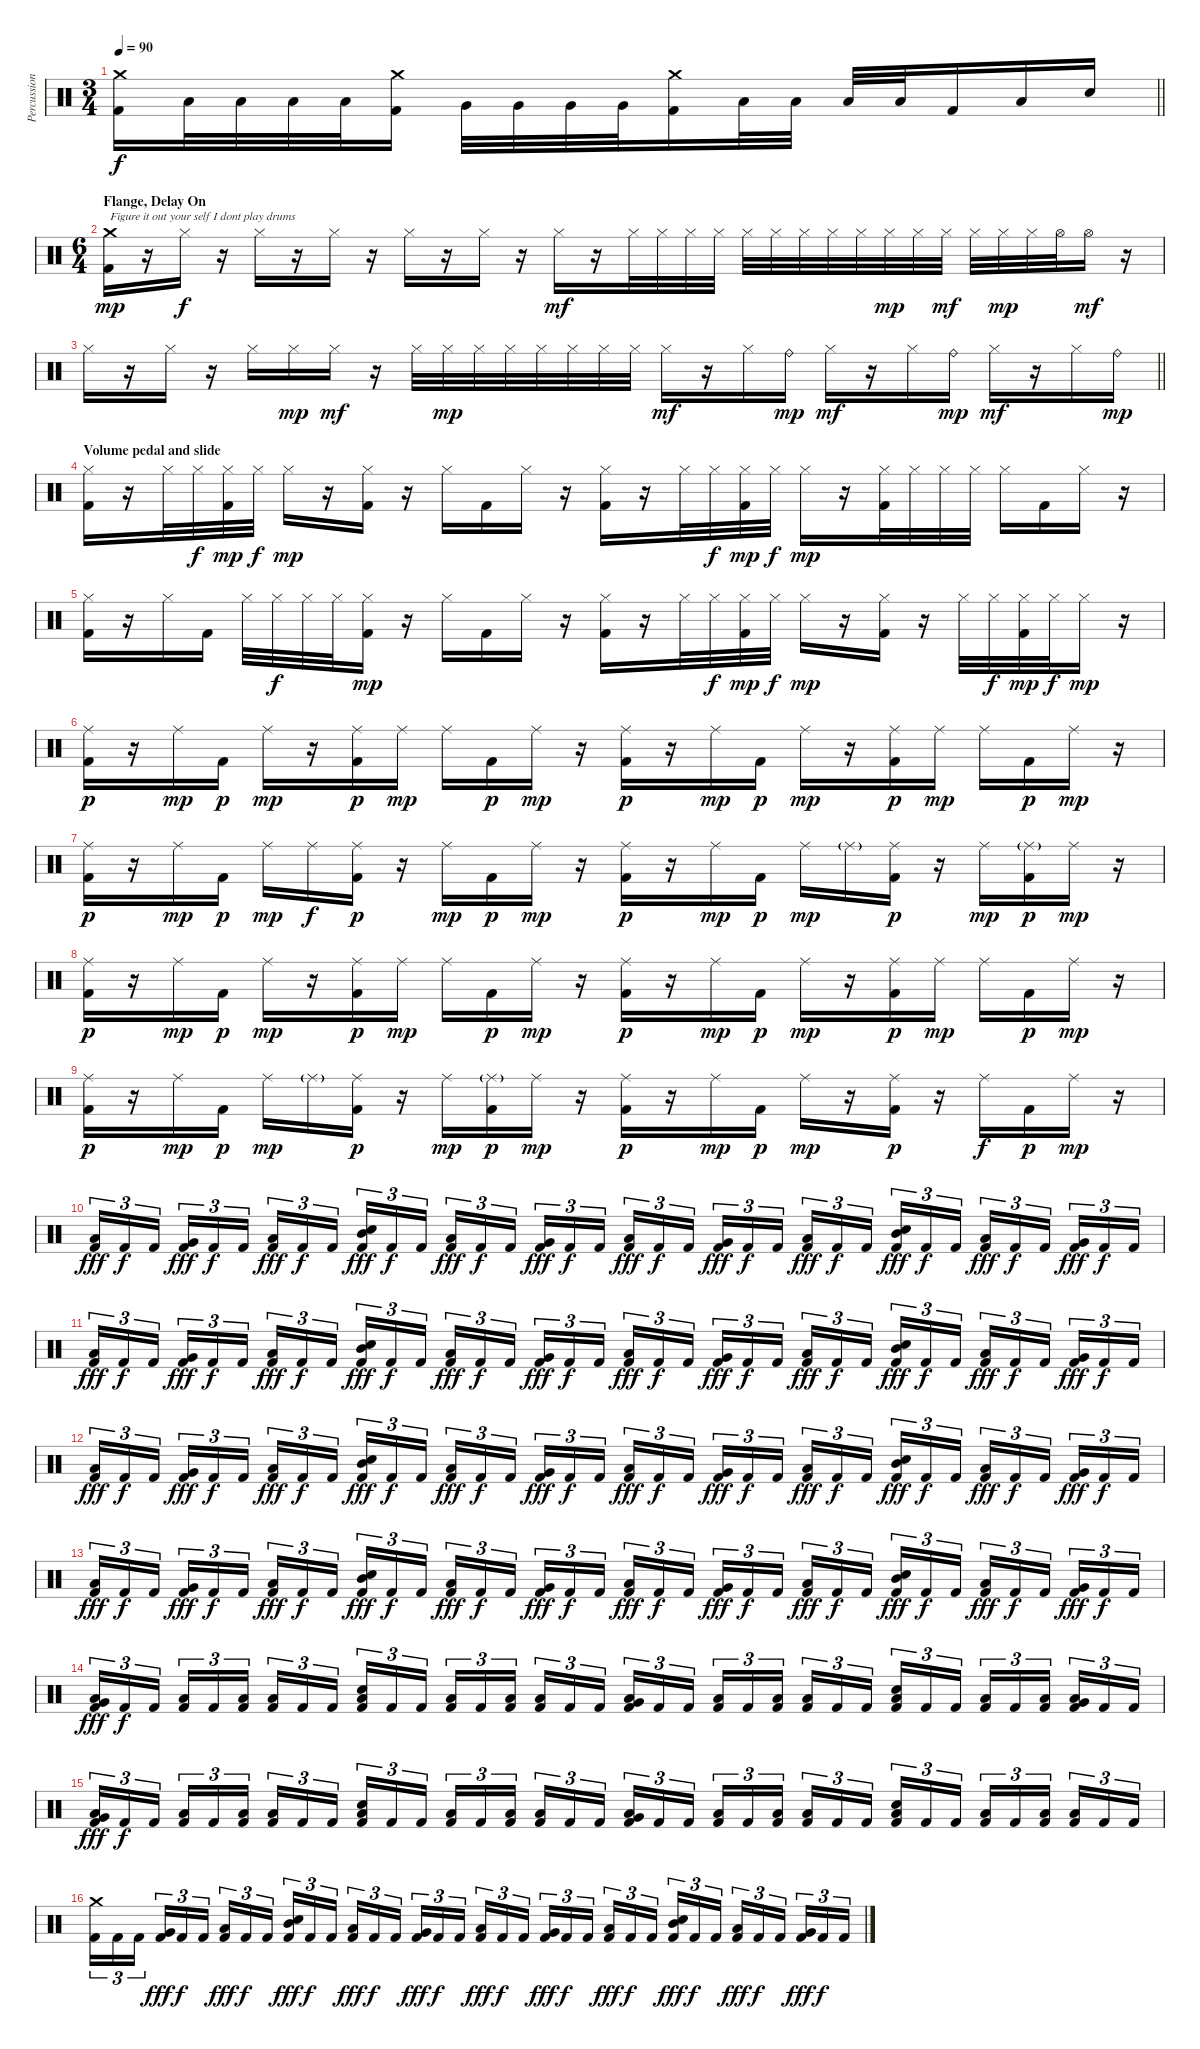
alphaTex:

\track ("Percussion" "Percussion") {instrument percussion}
\staff {score}
\articulation defaults
\ts (3 4)
\tempo 90
\clef neutral
\barLineRight lightlight
\ks c
("Crash medium (hit)" "Kick (hit) 2").16{dy f} "Low Tom (hit)".32 "Low Tom (hit)".32 "Low Tom (hit)".32 "Low Tom (hit)".32 ("Crash medium (hit)" "Kick (hit) 2").16 "Very Low Tom (hit)".32 "Very Low Tom (hit)".32 "Very Low Tom (hit)".32 "Very Low Tom (hit)".32 ("Crash medium (hit)" "Kick (hit) 2").16 "Low Floor Tom (hit)".32 "Low Floor Tom (hit)".32 "Low Floor Tom (hit)".32 "Low Floor Tom (hit)".32 "Kick (hit) 2".16 "Low Floor Tom (hit)".16 "Electric Snare (hit)".16 |
\ts (6 4)
\section ("" "Flange, Delay On")
("Crash medium (hit)" "Kick (hit) 2").16{txt "Figure it out your self I dont play drums" dy mp} r.16 "Hi-Hat (closed)".16{dy f} r.16 "Hi-Hat (closed)".16 r.16 "Hi-Hat (closed)".16 r.16 "Hi-Hat (closed)".16 r.16 "Hi-Hat (closed)".16 r.16 "Hi-Hat (closed)".16{dy mf} r.16 "Hi-Hat (closed)".32 "Hi-Hat (closed)".32 "Hi-Hat (closed)".32 "Hi-Hat (closed)".32 "Hi-Hat (closed)".32 "Hi-Hat (closed)".32 "Hi-Hat (closed)".32 "Hi-Hat (closed)".32 "Hi-Hat (closed)".32 "Hi-Hat (closed)".32{dy mp} "Hi-Hat (closed)".32 "Hi-Hat (closed)".32{dy mf} "Hi-Hat (closed)".32 "Hi-Hat (closed)".32{dy mp} "Hi-Hat (closed)".32 "Hi-Hat (open)".32 "Hi-Hat (open)".16{dy mf} r.16 |
\barLineRight lightlight "Hi-Hat (closed)".16
r.16 "Hi-Hat (closed)".16 r.16 "Hi-Hat (closed)".16 "Hi-Hat (closed)".16{dy mp} "Hi-Hat (closed)".16{dy mf} r.16 "Hi-Hat (closed)".32 "Hi-Hat (closed)".32{dy mp} "Hi-Hat (closed)".32 "Hi-Hat (closed)".32 "Hi-Hat (closed)".32 "Hi-Hat (closed)".32 "Hi-Hat (closed)".32 "Hi-Hat (closed)".32 "Hi-Hat (closed)".16{dy mf} r.16 "Hi-Hat (closed)".16 "Ride (bell)".16{dy mp} "Hi-Hat (closed)".16{dy mf} r.16 "Hi-Hat (closed)".16 "Ride (bell)".16{dy mp} "Hi-Hat (closed)".16{dy mf} r.16 "Hi-Hat (closed)".16 "Ride (bell)".16{dy mp} |
\section ("" "Volume pedal and slide")
("Hi-Hat (closed)" "Kick (hit) 2").16 r.16 "Hi-Hat (closed)".32 "Hi-Hat (closed)".32{dy f} ("Hi-Hat (closed)" "Kick (hit) 2").32{dy mp} "Hi-Hat (closed)".32{dy f} "Hi-Hat (closed)".16{dy mp} r.16 ("Hi-Hat (closed)" "Kick (hit) 2").16 r.16 "Hi-Hat (closed)".16 "Kick (hit) 2".16 "Hi-Hat (closed)".16 r.16 ("Hi-Hat (closed)" "Kick (hit) 2").16 r.16 "Hi-Hat (closed)".32 "Hi-Hat (closed)".32{dy f} ("Hi-Hat (closed)" "Kick (hit) 2").32{dy mp} "Hi-Hat (closed)".32{dy f} "Hi-Hat (closed)".16{dy mp} r.16 ("Hi-Hat (closed)" "Kick (hit) 2").32 "Hi-Hat (closed)".32 "Hi-Hat (closed)".32 "Hi-Hat (closed)".32 "Hi-Hat (closed)".16 "Kick (hit) 2".16 "Hi-Hat (closed)".16 r.16 |
("Hi-Hat (closed)" "Kick (hit) 2").16 r.16 "Hi-Hat (closed)".16 "Kick (hit) 2".16 "Hi-Hat (closed)".32 "Hi-Hat (closed)".32{dy f} "Hi-Hat (closed)".32 "Hi-Hat (closed)".32 ("Hi-Hat (closed)" "Kick (hit) 2").16{dy mp} r.16 "Hi-Hat (closed)".16 "Kick (hit) 2".16 "Hi-Hat (closed)".16 r.16 ("Hi-Hat (closed)" "Kick (hit) 2").16 r.16 "Hi-Hat (closed)".32 "Hi-Hat (closed)".32{dy f} ("Hi-Hat (closed)" "Kick (hit) 2").32{dy mp} "Hi-Hat (closed)".32{dy f} "Hi-Hat (closed)".16{dy mp} r.16 ("Hi-Hat (closed)" "Kick (hit) 2").16 r.16 "Hi-Hat (closed)".32 "Hi-Hat (closed)".32{dy f} ("Hi-Hat (closed)" "Kick (hit) 2").32{dy mp} "Hi-Hat (closed)".32{dy f} "Hi-Hat (closed)".16{dy mp} r.16 |
("Ride (middle)" "Kick (hit) 2").16{dy p} r.16 "Ride (middle)".16{dy mp} "Kick (hit) 2".16{dy p} "Ride (middle)".16{dy mp} r.16 ("Ride (middle)" "Kick (hit) 2").16{dy p} "Ride (middle)".16{dy mp} "Ride (middle)".16 "Kick (hit) 2".16{dy p} "Ride (middle)".16{dy mp} r.16 ("Ride (middle)" "Kick (hit) 2").16{dy p} r.16 "Ride (middle)".16{dy mp} "Kick (hit) 2".16{dy p} "Ride (middle)".16{dy mp} r.16 ("Ride (middle)" "Kick (hit) 2").16{dy p} "Ride (middle)".16{dy mp} "Ride (middle)".16 "Kick (hit) 2".16{dy p} "Ride (middle)".16{dy mp} r.16 |
("Ride (middle)" "Kick (hit) 2").16{dy p} r.16 "Ride (middle)".16{dy mp} "Kick (hit) 2".16{dy p} "Ride (middle)".16{dy mp} "Ride (middle)".16{dy f} ("Ride (middle)" "Kick (hit) 2").16{dy p} r.16 "Ride (middle)".16{dy mp} "Kick (hit) 2".16{dy p} "Ride (middle)".16{dy mp} r.16 ("Ride (middle)" "Kick (hit) 2").16{dy p} r.16 "Ride (middle)".16{dy mp} "Kick (hit) 2".16{dy p} "Ride (middle)".16{dy mp} "Ride (middle)"{g}.16 ("Ride (middle)" "Kick (hit) 2").16{dy p} r.16 "Ride (middle)".16{dy mp} ("Ride (middle)"{g} "Kick (hit) 2").16{dy p} "Ride (middle)".16{dy mp} r.16 |
("Ride (middle)" "Kick (hit) 2").16{dy p} r.16 "Ride (middle)".16{dy mp} "Kick (hit) 2".16{dy p} "Ride (middle)".16{dy mp} r.16 ("Ride (middle)" "Kick (hit) 2").16{dy p} "Ride (middle)".16{dy mp} "Ride (middle)".16 "Kick (hit) 2".16{dy p} "Ride (middle)".16{dy mp} r.16 ("Ride (middle)" "Kick (hit) 2").16{dy p} r.16 "Ride (middle)".16{dy mp} "Kick (hit) 2".16{dy p} "Ride (middle)".16{dy mp} r.16 ("Ride (middle)" "Kick (hit) 2").16{dy p} "Ride (middle)".16{dy mp} "Ride (middle)".16 "Kick (hit) 2".16{dy p} "Ride (middle)".16{dy mp} r.16 |
("Ride (middle)" "Kick (hit) 2").16{dy p} r.16 "Ride (middle)".16{dy mp} "Kick (hit) 2".16{dy p} "Ride (middle)".16{dy mp} "Ride (middle)"{g}.16 ("Ride (middle)" "Kick (hit) 2").16{dy p} r.16 "Ride (middle)".16{dy mp} ("Ride (middle)"{g} "Kick (hit) 2").16{dy p} "Ride (middle)".16{dy mp} r.16 ("Ride (middle)" "Kick (hit) 2").16{dy p} r.16 "Ride (middle)".16{dy mp} "Kick (hit) 2".16{dy p} "Ride (middle)".16{dy mp} r.16 ("Ride (middle)" "Kick (hit) 2").16{dy p} r.16 "Ride (middle)".16{dy f} "Kick (hit) 2".16{dy p} "Ride (middle)".16{dy mp} r.16 |
("Low Floor Tom (hit)" "Kick (hit) 2").16{tu (3 2) dy fff} "Kick (hit) 2".16{tu (3 2) dy f} "Kick (hit) 2".16{tu (3 2) beam splitsecondary} ("Very Low Tom (hit)" "Kick (hit) 2").16{tu (3 2) dy fff} "Kick (hit) 2".16{tu (3 2) dy f} "Kick (hit) 2".16{tu (3 2) beam splitsecondary} ("Low Tom (hit)" "Kick (hit) 2").16{tu (3 2) dy fff} "Kick (hit) 2".16{tu (3 2) dy f} "Kick (hit) 2".16{tu (3 2) beam splitsecondary} ("Mid Tom (hit)" "Electric Snare (hit)" "Kick (hit) 2").16{tu (3 2) dy fff} "Kick (hit) 2".16{tu (3 2) dy f} "Kick (hit) 2".16{tu (3 2) beam splitsecondary} ("Low Tom (hit)" "Kick (hit) 2").16{tu (3 2) dy fff} "Kick (hit) 2".16{tu (3 2) dy f} "Kick (hit) 2".16{tu (3 2) beam splitsecondary} ("Very Low Tom (hit)" "Kick (hit) 2").16{tu (3 2) dy fff} "Kick (hit) 2".16{tu (3 2) dy f} "Kick (hit) 2".16{tu (3 2)} ("Low Floor Tom (hit)" "Kick (hit) 2").16{tu (3 2) dy fff} "Kick (hit) 2".16{tu (3 2) dy f} "Kick (hit) 2".16{tu (3 2) beam splitsecondary} ("Very Low Tom (hit)" "Kick (hit) 2").16{tu (3 2) dy fff} "Kick (hit) 2".16{tu (3 2) dy f} "Kick (hit) 2".16{tu (3 2) beam splitsecondary} ("Low Tom (hit)" "Kick (hit) 2").16{tu (3 2) dy fff} "Kick (hit) 2".16{tu (3 2) dy f} "Kick (hit) 2".16{tu (3 2) beam splitsecondary} ("Mid Tom (hit)" "Electric Snare (hit)" "Kick (hit) 2").16{tu (3 2) dy fff} "Kick (hit) 2".16{tu (3 2) dy f} "Kick (hit) 2".16{tu (3 2) beam splitsecondary} ("Low Tom (hit)" "Kick (hit) 2").16{tu (3 2) dy fff} "Kick (hit) 2".16{tu (3 2) dy f} "Kick (hit) 2".16{tu (3 2) beam splitsecondary} ("Very Low Tom (hit)" "Kick (hit) 2").16{tu (3 2) dy fff} "Kick (hit) 2".16{tu (3 2) dy f} "Kick (hit) 2".16{tu (3 2)} |
("Low Floor Tom (hit)" "Kick (hit) 2").16{tu (3 2) dy fff} "Kick (hit) 2".16{tu (3 2) dy f} "Kick (hit) 2".16{tu (3 2) beam splitsecondary} ("Very Low Tom (hit)" "Kick (hit) 2").16{tu (3 2) dy fff} "Kick (hit) 2".16{tu (3 2) dy f} "Kick (hit) 2".16{tu (3 2) beam splitsecondary} ("Low Tom (hit)" "Kick (hit) 2").16{tu (3 2) dy fff} "Kick (hit) 2".16{tu (3 2) dy f} "Kick (hit) 2".16{tu (3 2) beam splitsecondary} ("Mid Tom (hit)" "Electric Snare (hit)" "Kick (hit) 2").16{tu (3 2) dy fff} "Kick (hit) 2".16{tu (3 2) dy f} "Kick (hit) 2".16{tu (3 2) beam splitsecondary} ("Low Tom (hit)" "Kick (hit) 2").16{tu (3 2) dy fff} "Kick (hit) 2".16{tu (3 2) dy f} "Kick (hit) 2".16{tu (3 2) beam splitsecondary} ("Very Low Tom (hit)" "Kick (hit) 2").16{tu (3 2) dy fff} "Kick (hit) 2".16{tu (3 2) dy f} "Kick (hit) 2".16{tu (3 2)} ("Low Floor Tom (hit)" "Kick (hit) 2").16{tu (3 2) dy fff} "Kick (hit) 2".16{tu (3 2) dy f} "Kick (hit) 2".16{tu (3 2) beam splitsecondary} ("Very Low Tom (hit)" "Kick (hit) 2").16{tu (3 2) dy fff} "Kick (hit) 2".16{tu (3 2) dy f} "Kick (hit) 2".16{tu (3 2) beam splitsecondary} ("Low Tom (hit)" "Kick (hit) 2").16{tu (3 2) dy fff} "Kick (hit) 2".16{tu (3 2) dy f} "Kick (hit) 2".16{tu (3 2) beam splitsecondary} ("Mid Tom (hit)" "Electric Snare (hit)" "Kick (hit) 2").16{tu (3 2) dy fff} "Kick (hit) 2".16{tu (3 2) dy f} "Kick (hit) 2".16{tu (3 2) beam splitsecondary} ("Low Tom (hit)" "Kick (hit) 2").16{tu (3 2) dy fff} "Kick (hit) 2".16{tu (3 2) dy f} "Kick (hit) 2".16{tu (3 2) beam splitsecondary} ("Very Low Tom (hit)" "Kick (hit) 2").16{tu (3 2) dy fff} "Kick (hit) 2".16{tu (3 2) dy f} "Kick (hit) 2".16{tu (3 2)} |
("Low Floor Tom (hit)" "Kick (hit) 2").16{tu (3 2) dy fff} "Kick (hit) 2".16{tu (3 2) dy f} "Kick (hit) 2".16{tu (3 2) beam splitsecondary} ("Very Low Tom (hit)" "Kick (hit) 2").16{tu (3 2) dy fff} "Kick (hit) 2".16{tu (3 2) dy f} "Kick (hit) 2".16{tu (3 2) beam splitsecondary} ("Low Tom (hit)" "Kick (hit) 2").16{tu (3 2) dy fff} "Kick (hit) 2".16{tu (3 2) dy f} "Kick (hit) 2".16{tu (3 2) beam splitsecondary} ("Mid Tom (hit)" "Electric Snare (hit)" "Kick (hit) 2").16{tu (3 2) dy fff} "Kick (hit) 2".16{tu (3 2) dy f} "Kick (hit) 2".16{tu (3 2) beam splitsecondary} ("Low Tom (hit)" "Kick (hit) 2").16{tu (3 2) dy fff} "Kick (hit) 2".16{tu (3 2) dy f} "Kick (hit) 2".16{tu (3 2) beam splitsecondary} ("Very Low Tom (hit)" "Kick (hit) 2").16{tu (3 2) dy fff} "Kick (hit) 2".16{tu (3 2) dy f} "Kick (hit) 2".16{tu (3 2)} ("Low Floor Tom (hit)" "Kick (hit) 2").16{tu (3 2) dy fff} "Kick (hit) 2".16{tu (3 2) dy f} "Kick (hit) 2".16{tu (3 2) beam splitsecondary} ("Very Low Tom (hit)" "Kick (hit) 2").16{tu (3 2) dy fff} "Kick (hit) 2".16{tu (3 2) dy f} "Kick (hit) 2".16{tu (3 2) beam splitsecondary} ("Low Tom (hit)" "Kick (hit) 2").16{tu (3 2) dy fff} "Kick (hit) 2".16{tu (3 2) dy f} "Kick (hit) 2".16{tu (3 2) beam splitsecondary} ("Mid Tom (hit)" "Electric Snare (hit)" "Kick (hit) 2").16{tu (3 2) dy fff} "Kick (hit) 2".16{tu (3 2) dy f} "Kick (hit) 2".16{tu (3 2) beam splitsecondary} ("Low Tom (hit)" "Kick (hit) 2").16{tu (3 2) dy fff} "Kick (hit) 2".16{tu (3 2) dy f} "Kick (hit) 2".16{tu (3 2) beam splitsecondary} ("Very Low Tom (hit)" "Kick (hit) 2").16{tu (3 2) dy fff} "Kick (hit) 2".16{tu (3 2) dy f} "Kick (hit) 2".16{tu (3 2)} |
("Low Floor Tom (hit)" "Kick (hit) 2").16{tu (3 2) dy fff} "Kick (hit) 2".16{tu (3 2) dy f} "Kick (hit) 2".16{tu (3 2) beam splitsecondary} ("Very Low Tom (hit)" "Kick (hit) 2").16{tu (3 2) dy fff} "Kick (hit) 2".16{tu (3 2) dy f} "Kick (hit) 2".16{tu (3 2) beam splitsecondary} ("Low Tom (hit)" "Kick (hit) 2").16{tu (3 2) dy fff} "Kick (hit) 2".16{tu (3 2) dy f} "Kick (hit) 2".16{tu (3 2) beam splitsecondary} ("Mid Tom (hit)" "Electric Snare (hit)" "Kick (hit) 2").16{tu (3 2) dy fff} "Kick (hit) 2".16{tu (3 2) dy f} "Kick (hit) 2".16{tu (3 2) beam splitsecondary} ("Low Tom (hit)" "Kick (hit) 2").16{tu (3 2) dy fff} "Kick (hit) 2".16{tu (3 2) dy f} "Kick (hit) 2".16{tu (3 2) beam splitsecondary} ("Very Low Tom (hit)" "Kick (hit) 2").16{tu (3 2) dy fff} "Kick (hit) 2".16{tu (3 2) dy f} "Kick (hit) 2".16{tu (3 2)} ("Low Floor Tom (hit)" "Kick (hit) 2").16{tu (3 2) dy fff} "Kick (hit) 2".16{tu (3 2) dy f} "Kick (hit) 2".16{tu (3 2) beam splitsecondary} ("Very Low Tom (hit)" "Kick (hit) 2").16{tu (3 2) dy fff} "Kick (hit) 2".16{tu (3 2) dy f} "Kick (hit) 2".16{tu (3 2) beam splitsecondary} ("Low Tom (hit)" "Kick (hit) 2").16{tu (3 2) dy fff} "Kick (hit) 2".16{tu (3 2) dy f} "Kick (hit) 2".16{tu (3 2) beam splitsecondary} ("Mid Tom (hit)" "Electric Snare (hit)" "Kick (hit) 2").16{tu (3 2) dy fff} "Kick (hit) 2".16{tu (3 2) dy f} "Kick (hit) 2".16{tu (3 2) beam splitsecondary} ("Low Tom (hit)" "Kick (hit) 2").16{tu (3 2) dy fff} "Kick (hit) 2".16{tu (3 2) dy f} "Kick (hit) 2".16{tu (3 2) beam splitsecondary} ("Very Low Tom (hit)" "Kick (hit) 2").16{tu (3 2) dy fff} "Kick (hit) 2".16{tu (3 2) dy f} "Kick (hit) 2".16{tu (3 2)} |
("Low Floor Tom (hit)" "Very Low Tom (hit)" "Kick (hit) 2").16{tu (3 2) dy fff} "Kick (hit) 2".16{tu (3 2) dy f} "Kick (hit) 2".16{tu (3 2) beam splitsecondary} ("Low Floor Tom (hit)" "Kick (hit) 2").16{tu (3 2)} "Kick (hit) 2".16{tu (3 2)} ("Low Tom (hit)" "Kick (hit) 2").16{tu (3 2) beam splitsecondary} ("Low Floor Tom (hit)" "Kick (hit) 2").16{tu (3 2)} "Kick (hit) 2".16{tu (3 2)} "Kick (hit) 2".16{tu (3 2) beam splitsecondary} ("Low Floor Tom (hit)" "Electric Snare (hit)" "Kick (hit) 2").16{tu (3 2)} "Kick (hit) 2".16{tu (3 2)} "Kick (hit) 2".16{tu (3 2) beam splitsecondary} ("Low Floor Tom (hit)" "Kick (hit) 2").16{tu (3 2)} "Kick (hit) 2".16{tu (3 2)} ("Low Tom (hit)" "Kick (hit) 2").16{tu (3 2) beam splitsecondary} ("Low Floor Tom (hit)" "Kick (hit) 2").16{tu (3 2)} "Kick (hit) 2".16{tu (3 2)} "Kick (hit) 2".16{tu (3 2)} ("Low Floor Tom (hit)" "Very Low Tom (hit)" "Kick (hit) 2").16{tu (3 2)} "Kick (hit) 2".16{tu (3 2)} "Kick (hit) 2".16{tu (3 2) beam splitsecondary} ("Low Floor Tom (hit)" "Kick (hit) 2").16{tu (3 2)} "Kick (hit) 2".16{tu (3 2)} ("Low Tom (hit)" "Kick (hit) 2").16{tu (3 2) beam splitsecondary} ("Low Floor Tom (hit)" "Kick (hit) 2").16{tu (3 2)} "Kick (hit) 2".16{tu (3 2)} "Kick (hit) 2".16{tu (3 2) beam splitsecondary} ("Low Floor Tom (hit)" "Electric Snare (hit)" "Kick (hit) 2").16{tu (3 2)} "Kick (hit) 2".16{tu (3 2)} "Kick (hit) 2".16{tu (3 2) beam splitsecondary} ("Low Floor Tom (hit)" "Kick (hit) 2").16{tu (3 2)} "Kick (hit) 2".16{tu (3 2)} ("Low Tom (hit)" "Kick (hit) 2").16{tu (3 2) beam splitsecondary} ("Low Floor Tom (hit)" "Very Low Tom (hit)" "Kick (hit) 2").16{tu (3 2)} "Kick (hit) 2".16{tu (3 2)} "Kick (hit) 2".16{tu (3 2)} |
("Low Floor Tom (hit)" "Very Low Tom (hit)" "Kick (hit) 2").16{tu (3 2) dy fff} "Kick (hit) 2".16{tu (3 2) dy f} "Kick (hit) 2".16{tu (3 2) beam splitsecondary} ("Low Floor Tom (hit)" "Kick (hit) 2").16{tu (3 2)} "Kick (hit) 2".16{tu (3 2)} ("Low Tom (hit)" "Kick (hit) 2").16{tu (3 2) beam splitsecondary} ("Low Floor Tom (hit)" "Kick (hit) 2").16{tu (3 2)} "Kick (hit) 2".16{tu (3 2)} "Kick (hit) 2".16{tu (3 2) beam splitsecondary} ("Low Floor Tom (hit)" "Electric Snare (hit)" "Kick (hit) 2").16{tu (3 2)} "Kick (hit) 2".16{tu (3 2)} "Kick (hit) 2".16{tu (3 2) beam splitsecondary} ("Low Floor Tom (hit)" "Kick (hit) 2").16{tu (3 2)} "Kick (hit) 2".16{tu (3 2)} ("Low Tom (hit)" "Kick (hit) 2").16{tu (3 2) beam splitsecondary} ("Low Floor Tom (hit)" "Kick (hit) 2").16{tu (3 2)} "Kick (hit) 2".16{tu (3 2)} "Kick (hit) 2".16{tu (3 2)} ("Low Floor Tom (hit)" "Very Low Tom (hit)" "Kick (hit) 2").16{tu (3 2)} "Kick (hit) 2".16{tu (3 2)} "Kick (hit) 2".16{tu (3 2) beam splitsecondary} ("Low Floor Tom (hit)" "Kick (hit) 2").16{tu (3 2)} "Kick (hit) 2".16{tu (3 2)} ("Low Tom (hit)" "Kick (hit) 2").16{tu (3 2) beam splitsecondary} ("Low Floor Tom (hit)" "Kick (hit) 2").16{tu (3 2)} "Kick (hit) 2".16{tu (3 2)} "Kick (hit) 2".16{tu (3 2) beam splitsecondary} ("Low Floor Tom (hit)" "Electric Snare (hit)" "Kick (hit) 2").16{tu (3 2)} "Kick (hit) 2".16{tu (3 2)} "Kick (hit) 2".16{tu (3 2) beam splitsecondary} ("Low Floor Tom (hit)" "Kick (hit) 2").16{tu (3 2)} "Kick (hit) 2".16{tu (3 2)} ("Low Tom (hit)" "Kick (hit) 2").16{tu (3 2) beam splitsecondary} ("Low Floor Tom (hit)" "Kick (hit) 2").16{tu (3 2)} "Kick (hit) 2".16{tu (3 2)} "Kick (hit) 2".16{tu (3 2)} |
("Crash medium (hit)" "Kick (hit) 2").16{tu (3 2)} "Kick (hit) 2".16{tu (3 2)} "Kick (hit) 2".16{tu (3 2) beam splitsecondary} ("Very Low Tom (hit)" "Kick (hit) 2").16{tu (3 2) dy fff} "Kick (hit) 2".16{tu (3 2) dy f} "Kick (hit) 2".16{tu (3 2) beam splitsecondary} ("Low Tom (hit)" "Kick (hit) 2").16{tu (3 2) dy fff} "Kick (hit) 2".16{tu (3 2) dy f} "Kick (hit) 2".16{tu (3 2) beam splitsecondary} ("Mid Tom (hit)" "Electric Snare (hit)" "Kick (hit) 2").16{tu (3 2) dy fff} "Kick (hit) 2".16{tu (3 2) dy f} "Kick (hit) 2".16{tu (3 2) beam splitsecondary} ("Low Tom (hit)" "Kick (hit) 2").16{tu (3 2) dy fff} "Kick (hit) 2".16{tu (3 2) dy f} "Kick (hit) 2".16{tu (3 2) beam splitsecondary} ("Very Low Tom (hit)" "Kick (hit) 2").16{tu (3 2) dy fff} "Kick (hit) 2".16{tu (3 2) dy f} "Kick (hit) 2".16{tu (3 2)} ("Low Floor Tom (hit)" "Kick (hit) 2").16{tu (3 2) dy fff} "Kick (hit) 2".16{tu (3 2) dy f} "Kick (hit) 2".16{tu (3 2) beam splitsecondary} ("Very Low Tom (hit)" "Kick (hit) 2").16{tu (3 2) dy fff} "Kick (hit) 2".16{tu (3 2) dy f} "Kick (hit) 2".16{tu (3 2) beam splitsecondary} ("Low Tom (hit)" "Kick (hit) 2").16{tu (3 2) dy fff} "Kick (hit) 2".16{tu (3 2) dy f} "Kick (hit) 2".16{tu (3 2) beam splitsecondary} ("Mid Tom (hit)" "Electric Snare (hit)" "Kick (hit) 2").16{tu (3 2) dy fff} "Kick (hit) 2".16{tu (3 2) dy f} "Kick (hit) 2".16{tu (3 2) beam splitsecondary} ("Low Tom (hit)" "Kick (hit) 2").16{tu (3 2) dy fff} "Kick (hit) 2".16{tu (3 2) dy f} "Kick (hit) 2".16{tu (3 2) beam splitsecondary} ("Very Low Tom (hit)" "Kick (hit) 2").16{tu (3 2) dy fff} "Kick (hit) 2".16{tu (3 2) dy f} "Kick (hit) 2".16{tu (3 2)}
